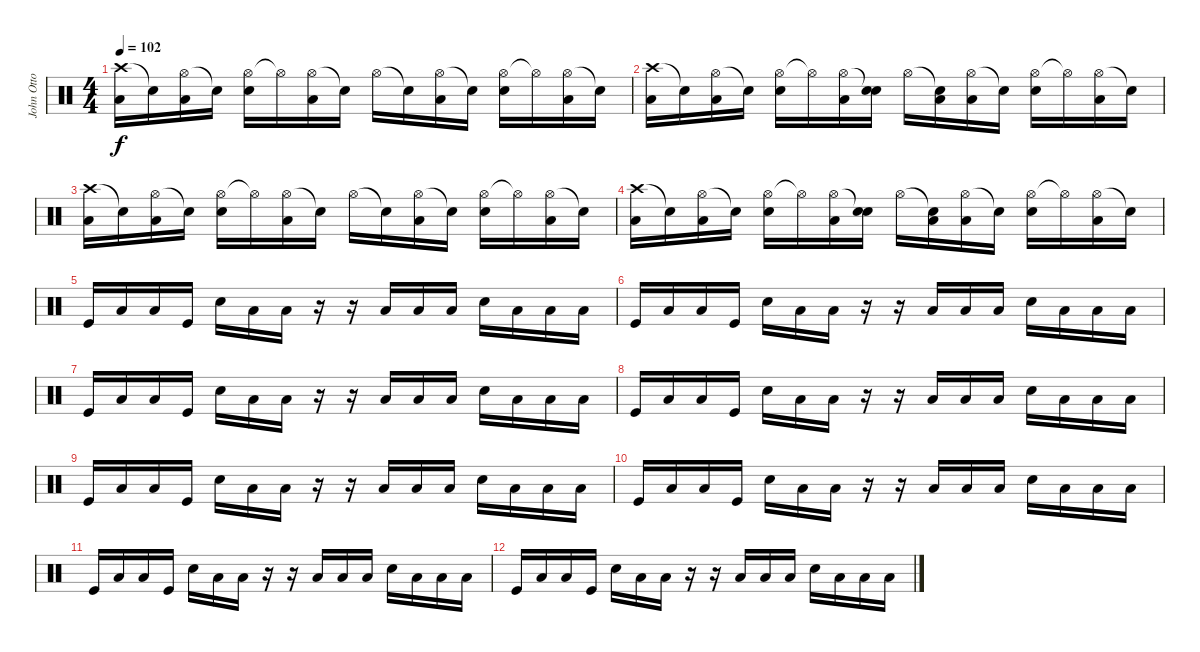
\track ("John Otto (1st Drums)" "John Otto ") {instrument percussion}
\staff {score}
\articulation defaults
\ts (4 4)
\tempo 102
\clef neutral
\ks c
("Crash high (hit)" "Low Tom (hit)").16{dy f} "Snare (hit)"{t}.16 ("Hi-Hat (open)" "Low Tom (hit)").16 "Snare (hit)"{t}.16 ("Hi-Hat (open)" "Snare (hit) 2").16 "Hi-Hat (open)"{t}.16 ("Hi-Hat (open)" "Low Tom (hit)").16 "Snare (hit)"{t}.16 "Hi-Hat (open)".16 "Snare (hit)"{t}.16 ("Hi-Hat (open)" "Low Tom (hit)").16 "Snare (hit)"{t}.16 ("Hi-Hat (open)" "Snare (hit) 2").16 "Hi-Hat (open)"{t}.16 ("Hi-Hat (open)" "Low Tom (hit)").16 "Snare (hit)"{t}.16 |
("Crash high (hit)" "Low Tom (hit)").16 "Snare (hit)"{t}.16 ("Hi-Hat (open)" "Low Tom (hit)").16 "Snare (hit)"{t}.16 ("Hi-Hat (open)" "Snare (hit) 2").16 "Hi-Hat (open)"{t}.16 ("Hi-Hat (open)" "Low Tom (hit)").16 ("Snare (hit)"{t} "Snare (hit) 2").16 "Hi-Hat (open)".16 ("Snare (hit)"{t} "Low Tom (hit)").16 ("Hi-Hat (open)" "Low Tom (hit)").16 "Snare (hit)"{t}.16 ("Hi-Hat (open)" "Snare (hit) 2").16 "Hi-Hat (open)"{t}.16 ("Hi-Hat (open)" "Low Tom (hit)").16 "Snare (hit)"{t}.16 |
("Crash high (hit)" "Low Tom (hit)").16 "Snare (hit)"{t}.16 ("Hi-Hat (open)" "Low Tom (hit)").16 "Snare (hit)"{t}.16 ("Hi-Hat (open)" "Snare (hit) 2").16 "Hi-Hat (open)"{t}.16 ("Hi-Hat (open)" "Low Tom (hit)").16 "Snare (hit)"{t}.16 "Hi-Hat (open)".16 "Snare (hit)"{t}.16 ("Hi-Hat (open)" "Low Tom (hit)").16 "Snare (hit)"{t}.16 ("Hi-Hat (open)" "Snare (hit) 2").16 "Hi-Hat (open)"{t}.16 ("Hi-Hat (open)" "Low Tom (hit)").16 "Snare (hit)"{t}.16 |
("Crash high (hit)" "Low Tom (hit)").16 "Snare (hit)"{t}.16 ("Hi-Hat (open)" "Low Tom (hit)").16 "Snare (hit)"{t}.16 ("Hi-Hat (open)" "Snare (hit) 2").16 "Hi-Hat (open)"{t}.16 ("Hi-Hat (open)" "Low Tom (hit)").16 ("Snare (hit)"{t} "Snare (hit) 2").16 "Hi-Hat (open)".16 ("Snare (hit)"{t} "Low Tom (hit)").16 ("Hi-Hat (open)" "Low Tom (hit)").16 "Snare (hit)"{t}.16 ("Hi-Hat (open)" "Snare (hit) 2").16 "Hi-Hat (open)"{t}.16 ("Hi-Hat (open)" "Low Tom (hit)").16 "Snare (hit)"{t}.16 |
"Kick (hit)".16 "Low Tom (hit)".16 "Low Tom (hit)".16 "Kick (hit)".16 "Snare (hit) 2".16 "Low Tom (hit)".16 "Low Tom (hit)".16 r.16 r.16 "Low Tom (hit)".16 "Low Tom (hit)".16 "Low Tom (hit)".16 "Snare (hit) 2".16 "Low Tom (hit)".16 "Low Tom (hit)".16 "Low Tom (hit)".16 |
"Kick (hit)".16 "Low Tom (hit)".16 "Low Tom (hit)".16 "Kick (hit)".16 "Snare (hit) 2".16 "Low Tom (hit)".16 "Low Tom (hit)".16 r.16 r.16 "Low Tom (hit)".16 "Low Tom (hit)".16 "Low Tom (hit)".16 "Snare (hit) 2".16 "Low Tom (hit)".16 "Low Tom (hit)".16 "Low Tom (hit)".16 |
"Kick (hit)".16{volume 11} "Low Tom (hit)".16 "Low Tom (hit)".16 "Kick (hit)".16 "Snare (hit) 2".16 "Low Tom (hit)".16 "Low Tom (hit)".16 r.16 r.16 "Low Tom (hit)".16 "Low Tom (hit)".16 "Low Tom (hit)".16 "Snare (hit) 2".16 "Low Tom (hit)".16 "Low Tom (hit)".16 "Low Tom (hit)".16 |
"Kick (hit)".16 "Low Tom (hit)".16 "Low Tom (hit)".16 "Kick (hit)".16 "Snare (hit) 2".16 "Low Tom (hit)".16 "Low Tom (hit)".16 r.16 r.16 "Low Tom (hit)".16 "Low Tom (hit)".16 "Low Tom (hit)".16 "Snare (hit) 2".16 "Low Tom (hit)".16 "Low Tom (hit)".16 "Low Tom (hit)".16 |
"Kick (hit)".16{volume 8} "Low Tom (hit)".16 "Low Tom (hit)".16 "Kick (hit)".16 "Snare (hit) 2".16 "Low Tom (hit)".16 "Low Tom (hit)".16 r.16 r.16 "Low Tom (hit)".16 "Low Tom (hit)".16 "Low Tom (hit)".16 "Snare (hit) 2".16 "Low Tom (hit)".16 "Low Tom (hit)".16 "Low Tom (hit)".16 |
"Kick (hit)".16 "Low Tom (hit)".16 "Low Tom (hit)".16 "Kick (hit)".16 "Snare (hit) 2".16 "Low Tom (hit)".16 "Low Tom (hit)".16 r.16 r.16 "Low Tom (hit)".16 "Low Tom (hit)".16 "Low Tom (hit)".16 "Snare (hit) 2".16 "Low Tom (hit)".16 "Low Tom (hit)".16 "Low Tom (hit)".16 |
"Kick (hit)".16{volume 4} "Low Tom (hit)".16 "Low Tom (hit)".16 "Kick (hit)".16 "Snare (hit) 2".16 "Low Tom (hit)".16 "Low Tom (hit)".16 r.16 r.16 "Low Tom (hit)".16 "Low Tom (hit)".16 "Low Tom (hit)".16 "Snare (hit) 2".16 "Low Tom (hit)".16 "Low Tom (hit)".16 "Low Tom (hit)".16 |
"Kick (hit)".16 "Low Tom (hit)".16 "Low Tom (hit)".16 "Kick (hit)".16 "Snare (hit) 2".16 "Low Tom (hit)".16 "Low Tom (hit)".16 r.16 r.16 "Low Tom (hit)".16 "Low Tom (hit)".16 "Low Tom (hit)".16 "Snare (hit) 2".16 "Low Tom (hit)".16 "Low Tom (hit)".16 "Low Tom (hit)".16
